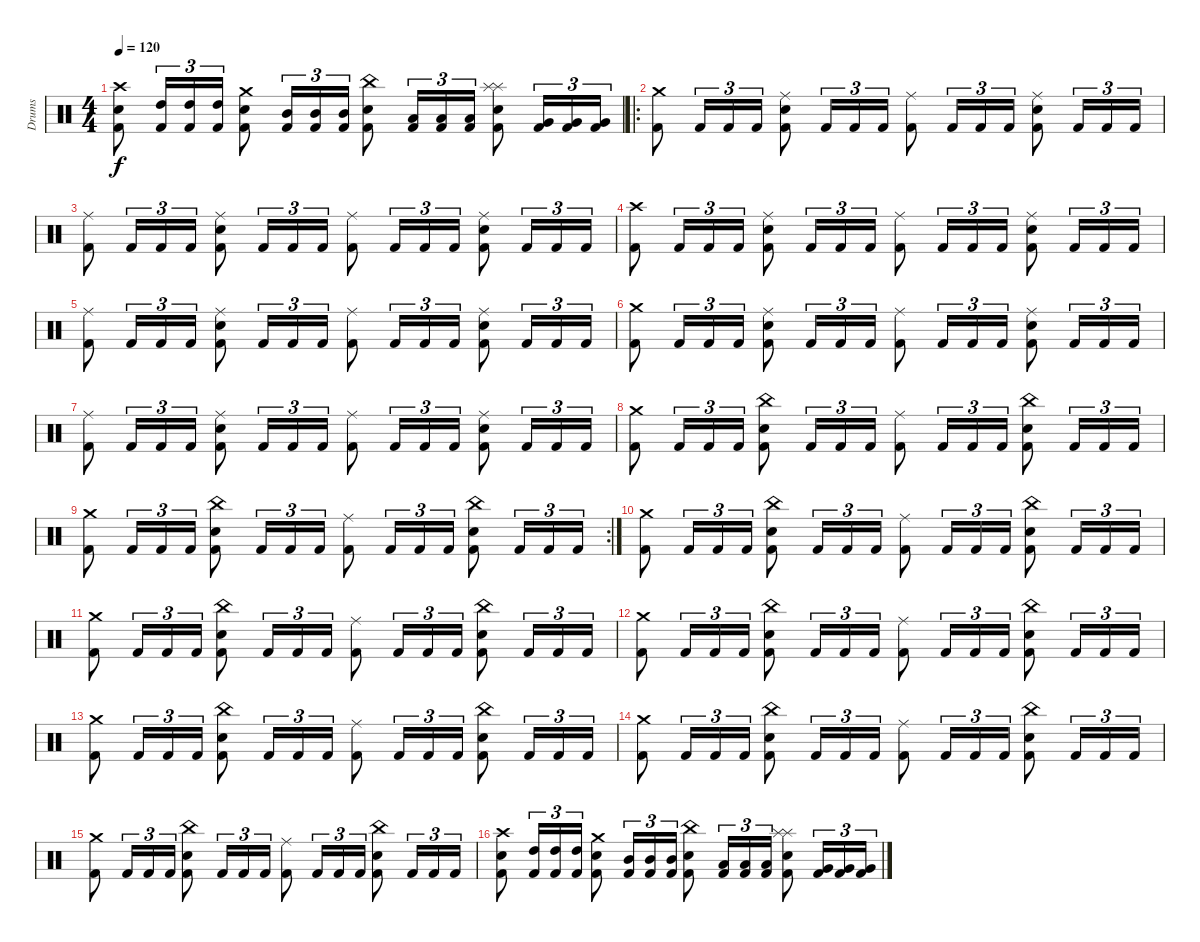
\track ("Drums" "Drums") {instrument percussion}
\staff {score}
\articulation defaults
\ts (4 4)
\tempo 120
\clef neutral
\ks c
("Crash high (hit)" "Snare (hit) 2" "Kick (hit) 2").8{dy f} ("High Tom (hit)" "Kick (hit) 2").16{tu (3 2)} ("High Tom (hit)" "Kick (hit) 2").16{tu (3 2)} ("High Tom (hit)" "Kick (hit) 2").16{tu (3 2)} ("Crash medium (hit)" "Snare (hit) 2" "Kick (hit) 2").8 ("Mid Tom (hit)" "Kick (hit) 2").16{tu (3 2)} ("Mid Tom (hit)" "Kick (hit) 2").16{tu (3 2)} ("Mid Tom (hit)" "Kick (hit) 2").16{tu (3 2)} ("China (hit)" "Snare (hit) 2" "Kick (hit) 2").8 ("Low Tom (hit)" "Kick (hit) 2").16{tu (3 2)} ("Low Tom (hit)" "Kick (hit) 2").16{tu (3 2)} ("Low Tom (hit)" "Kick (hit) 2").16{tu (3 2)} ("Splash (hit)" "Splash (hit)" "Snare (hit) 2" "Kick (hit) 2").8 ("Very Low Tom (hit)" "Kick (hit) 2").16{tu (3 2)} ("Very Low Tom (hit)" "Kick (hit) 2").16{tu (3 2)} ("Very Low Tom (hit)" "Kick (hit) 2").16{tu (3 2)} |
\ro
("Crash medium (hit)" "Kick (hit) 2").8 "Kick (hit) 2".16{tu (3 2)} "Kick (hit) 2".16{tu (3 2)} "Kick (hit) 2".16{tu (3 2)} ("Ride (middle)" "Snare (hit) 2" "Kick (hit) 2").8 "Kick (hit) 2".16{tu (3 2)} "Kick (hit) 2".16{tu (3 2)} "Kick (hit) 2".16{tu (3 2)} ("Ride (middle)" "Kick (hit) 2").8 "Kick (hit) 2".16{tu (3 2)} "Kick (hit) 2".16{tu (3 2)} "Kick (hit) 2".16{tu (3 2)} ("Ride (middle)" "Snare (hit) 2" "Kick (hit) 2").8 "Kick (hit) 2".16{tu (3 2)} "Kick (hit) 2".16{tu (3 2)} "Kick (hit) 2".16{tu (3 2)} |
("Ride (middle)" "Kick (hit) 2").8 "Kick (hit) 2".16{tu (3 2)} "Kick (hit) 2".16{tu (3 2)} "Kick (hit) 2".16{tu (3 2)} ("Ride (middle)" "Snare (hit) 2" "Kick (hit) 2").8 "Kick (hit) 2".16{tu (3 2)} "Kick (hit) 2".16{tu (3 2)} "Kick (hit) 2".16{tu (3 2)} ("Ride (middle)" "Kick (hit) 2").8 "Kick (hit) 2".16{tu (3 2)} "Kick (hit) 2".16{tu (3 2)} "Kick (hit) 2".16{tu (3 2)} ("Ride (middle)" "Snare (hit) 2" "Kick (hit) 2").8 "Kick (hit) 2".16{tu (3 2)} "Kick (hit) 2".16{tu (3 2)} "Kick (hit) 2".16{tu (3 2)} |
("Crash high (hit)" "Kick (hit) 2").8 "Kick (hit) 2".16{tu (3 2)} "Kick (hit) 2".16{tu (3 2)} "Kick (hit) 2".16{tu (3 2)} ("Ride (middle)" "Snare (hit) 2" "Kick (hit) 2").8 "Kick (hit) 2".16{tu (3 2)} "Kick (hit) 2".16{tu (3 2)} "Kick (hit) 2".16{tu (3 2)} ("Ride (middle)" "Kick (hit) 2").8 "Kick (hit) 2".16{tu (3 2)} "Kick (hit) 2".16{tu (3 2)} "Kick (hit) 2".16{tu (3 2)} ("Ride (middle)" "Snare (hit) 2" "Kick (hit) 2").8 "Kick (hit) 2".16{tu (3 2)} "Kick (hit) 2".16{tu (3 2)} "Kick (hit) 2".16{tu (3 2)} |
("Ride (middle)" "Kick (hit) 2").8 "Kick (hit) 2".16{tu (3 2)} "Kick (hit) 2".16{tu (3 2)} "Kick (hit) 2".16{tu (3 2)} ("Ride (middle)" "Snare (hit) 2" "Kick (hit) 2").8 "Kick (hit) 2".16{tu (3 2)} "Kick (hit) 2".16{tu (3 2)} "Kick (hit) 2".16{tu (3 2)} ("Ride (middle)" "Kick (hit) 2").8 "Kick (hit) 2".16{tu (3 2)} "Kick (hit) 2".16{tu (3 2)} "Kick (hit) 2".16{tu (3 2)} ("Ride (middle)" "Snare (hit) 2" "Kick (hit) 2").8 "Kick (hit) 2".16{tu (3 2)} "Kick (hit) 2".16{tu (3 2)} "Kick (hit) 2".16{tu (3 2)} |
("Crash medium (hit)" "Kick (hit) 2").8 "Kick (hit) 2".16{tu (3 2)} "Kick (hit) 2".16{tu (3 2)} "Kick (hit) 2".16{tu (3 2)} ("Ride (middle)" "Snare (hit) 2" "Kick (hit) 2").8 "Kick (hit) 2".16{tu (3 2)} "Kick (hit) 2".16{tu (3 2)} "Kick (hit) 2".16{tu (3 2)} ("Ride (middle)" "Kick (hit) 2").8 "Kick (hit) 2".16{tu (3 2)} "Kick (hit) 2".16{tu (3 2)} "Kick (hit) 2".16{tu (3 2)} ("Ride (middle)" "Snare (hit) 2" "Kick (hit) 2").8 "Kick (hit) 2".16{tu (3 2)} "Kick (hit) 2".16{tu (3 2)} "Kick (hit) 2".16{tu (3 2)} |
("Ride (middle)" "Kick (hit) 2").8 "Kick (hit) 2".16{tu (3 2)} "Kick (hit) 2".16{tu (3 2)} "Kick (hit) 2".16{tu (3 2)} ("Ride (middle)" "Snare (hit) 2" "Kick (hit) 2").8 "Kick (hit) 2".16{tu (3 2)} "Kick (hit) 2".16{tu (3 2)} "Kick (hit) 2".16{tu (3 2)} ("Ride (middle)" "Kick (hit) 2").8 "Kick (hit) 2".16{tu (3 2)} "Kick (hit) 2".16{tu (3 2)} "Kick (hit) 2".16{tu (3 2)} ("Ride (middle)" "Snare (hit) 2" "Kick (hit) 2").8 "Kick (hit) 2".16{tu (3 2)} "Kick (hit) 2".16{tu (3 2)} "Kick (hit) 2".16{tu (3 2)} |
("Crash medium (hit)" "Kick (hit) 2").8 "Kick (hit) 2".16{tu (3 2)} "Kick (hit) 2".16{tu (3 2)} "Kick (hit) 2".16{tu (3 2)} ("China (hit)" "Snare (hit) 2" "Kick (hit) 2").8 "Kick (hit) 2".16{tu (3 2)} "Kick (hit) 2".16{tu (3 2)} "Kick (hit) 2".16{tu (3 2)} ("Ride (middle)" "Kick (hit) 2").8 "Kick (hit) 2".16{tu (3 2)} "Kick (hit) 2".16{tu (3 2)} "Kick (hit) 2".16{tu (3 2)} ("China (hit)" "Snare (hit) 2" "Kick (hit) 2").8 "Kick (hit) 2".16{tu (3 2)} "Kick (hit) 2".16{tu (3 2)} "Kick (hit) 2".16{tu (3 2)} |
\rc 2
("Crash medium (hit)" "Kick (hit) 2").8 "Kick (hit) 2".16{tu (3 2)} "Kick (hit) 2".16{tu (3 2)} "Kick (hit) 2".16{tu (3 2)} ("China (hit)" "Snare (hit) 2" "Kick (hit) 2").8 "Kick (hit) 2".16{tu (3 2)} "Kick (hit) 2".16{tu (3 2)} "Kick (hit) 2".16{tu (3 2)} ("Ride (middle)" "Kick (hit) 2").8 "Kick (hit) 2".16{tu (3 2)} "Kick (hit) 2".16{tu (3 2)} "Kick (hit) 2".16{tu (3 2)} ("China (hit)" "Snare (hit) 2" "Kick (hit) 2").8 "Kick (hit) 2".16{tu (3 2)} "Kick (hit) 2".16{tu (3 2)} "Kick (hit) 2".16{tu (3 2)} |
("Crash medium (hit)" "Kick (hit) 2").8 "Kick (hit) 2".16{tu (3 2)} "Kick (hit) 2".16{tu (3 2)} "Kick (hit) 2".16{tu (3 2)} ("China (hit)" "Snare (hit) 2" "Kick (hit) 2").8 "Kick (hit) 2".16{tu (3 2)} "Kick (hit) 2".16{tu (3 2)} "Kick (hit) 2".16{tu (3 2)} ("Ride (middle)" "Kick (hit) 2").8 "Kick (hit) 2".16{tu (3 2)} "Kick (hit) 2".16{tu (3 2)} "Kick (hit) 2".16{tu (3 2)} ("China (hit)" "Snare (hit) 2" "Kick (hit) 2").8 "Kick (hit) 2".16{tu (3 2)} "Kick (hit) 2".16{tu (3 2)} "Kick (hit) 2".16{tu (3 2)} |
("Crash medium (hit)" "Kick (hit) 2").8 "Kick (hit) 2".16{tu (3 2)} "Kick (hit) 2".16{tu (3 2)} "Kick (hit) 2".16{tu (3 2)} ("China (hit)" "Snare (hit) 2" "Kick (hit) 2").8 "Kick (hit) 2".16{tu (3 2)} "Kick (hit) 2".16{tu (3 2)} "Kick (hit) 2".16{tu (3 2)} ("Ride (middle)" "Kick (hit) 2").8 "Kick (hit) 2".16{tu (3 2)} "Kick (hit) 2".16{tu (3 2)} "Kick (hit) 2".16{tu (3 2)} ("China (hit)" "Snare (hit) 2" "Kick (hit) 2").8 "Kick (hit) 2".16{tu (3 2)} "Kick (hit) 2".16{tu (3 2)} "Kick (hit) 2".16{tu (3 2)} |
("Crash medium (hit)" "Kick (hit) 2").8 "Kick (hit) 2".16{tu (3 2)} "Kick (hit) 2".16{tu (3 2)} "Kick (hit) 2".16{tu (3 2)} ("China (hit)" "Snare (hit) 2" "Kick (hit) 2").8 "Kick (hit) 2".16{tu (3 2)} "Kick (hit) 2".16{tu (3 2)} "Kick (hit) 2".16{tu (3 2)} ("Ride (middle)" "Kick (hit) 2").8 "Kick (hit) 2".16{tu (3 2)} "Kick (hit) 2".16{tu (3 2)} "Kick (hit) 2".16{tu (3 2)} ("China (hit)" "Snare (hit) 2" "Kick (hit) 2").8 "Kick (hit) 2".16{tu (3 2)} "Kick (hit) 2".16{tu (3 2)} "Kick (hit) 2".16{tu (3 2)} |
("Crash medium (hit)" "Kick (hit) 2").8 "Kick (hit) 2".16{tu (3 2)} "Kick (hit) 2".16{tu (3 2)} "Kick (hit) 2".16{tu (3 2)} ("China (hit)" "Snare (hit) 2" "Kick (hit) 2").8 "Kick (hit) 2".16{tu (3 2)} "Kick (hit) 2".16{tu (3 2)} "Kick (hit) 2".16{tu (3 2)} ("Ride (middle)" "Kick (hit) 2").8 "Kick (hit) 2".16{tu (3 2)} "Kick (hit) 2".16{tu (3 2)} "Kick (hit) 2".16{tu (3 2)} ("China (hit)" "Snare (hit) 2" "Kick (hit) 2").8 "Kick (hit) 2".16{tu (3 2)} "Kick (hit) 2".16{tu (3 2)} "Kick (hit) 2".16{tu (3 2)} |
("Crash medium (hit)" "Kick (hit) 2").8 "Kick (hit) 2".16{tu (3 2)} "Kick (hit) 2".16{tu (3 2)} "Kick (hit) 2".16{tu (3 2)} ("China (hit)" "Snare (hit) 2" "Kick (hit) 2").8 "Kick (hit) 2".16{tu (3 2)} "Kick (hit) 2".16{tu (3 2)} "Kick (hit) 2".16{tu (3 2)} ("Ride (middle)" "Kick (hit) 2").8 "Kick (hit) 2".16{tu (3 2)} "Kick (hit) 2".16{tu (3 2)} "Kick (hit) 2".16{tu (3 2)} ("China (hit)" "Snare (hit) 2" "Kick (hit) 2").8 "Kick (hit) 2".16{tu (3 2)} "Kick (hit) 2".16{tu (3 2)} "Kick (hit) 2".16{tu (3 2)} |
("Crash medium (hit)" "Kick (hit) 2").8 "Kick (hit) 2".16{tu (3 2)} "Kick (hit) 2".16{tu (3 2)} "Kick (hit) 2".16{tu (3 2)} ("China (hit)" "Snare (hit) 2" "Kick (hit) 2").8 "Kick (hit) 2".16{tu (3 2)} "Kick (hit) 2".16{tu (3 2)} "Kick (hit) 2".16{tu (3 2)} ("Ride (middle)" "Kick (hit) 2").8 "Kick (hit) 2".16{tu (3 2)} "Kick (hit) 2".16{tu (3 2)} "Kick (hit) 2".16{tu (3 2)} ("China (hit)" "Snare (hit) 2" "Kick (hit) 2").8 "Kick (hit) 2".16{tu (3 2)} "Kick (hit) 2".16{tu (3 2)} "Kick (hit) 2".16{tu (3 2)} |
("Crash high (hit)" "Snare (hit) 2" "Kick (hit) 2").8 ("High Tom (hit)" "Kick (hit) 2").16{tu (3 2)} ("High Tom (hit)" "Kick (hit) 2").16{tu (3 2)} ("High Tom (hit)" "Kick (hit) 2").16{tu (3 2)} ("Crash medium (hit)" "Snare (hit) 2" "Kick (hit) 2").8 ("Mid Tom (hit)" "Kick (hit) 2").16{tu (3 2)} ("Mid Tom (hit)" "Kick (hit) 2").16{tu (3 2)} ("Mid Tom (hit)" "Kick (hit) 2").16{tu (3 2)} ("China (hit)" "Snare (hit) 2" "Kick (hit) 2").8 ("Low Tom (hit)" "Kick (hit) 2").16{tu (3 2)} ("Low Tom (hit)" "Kick (hit) 2").16{tu (3 2)} ("Low Tom (hit)" "Kick (hit) 2").16{tu (3 2)} ("Splash (hit)" "Splash (hit)" "Snare (hit) 2" "Kick (hit) 2").8 ("Very Low Tom (hit)" "Kick (hit) 2").16{tu (3 2)} ("Very Low Tom (hit)" "Kick (hit) 2").16{tu (3 2)} ("Very Low Tom (hit)" "Kick (hit) 2").16{tu (3 2)}
